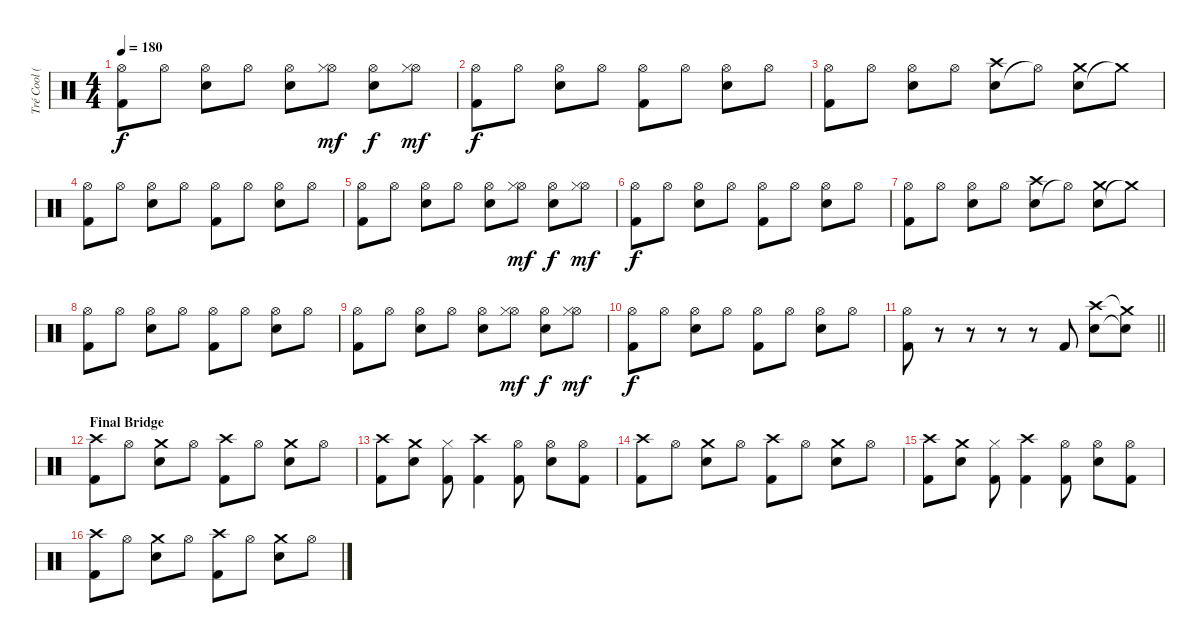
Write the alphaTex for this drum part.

\track ("Tré Cool (Drums)" "Tré Cool (") {instrument percussion}
\staff {score}
\articulation defaults
\ts (4 4)
\tempo 180
\clef neutral
\ks c
("Kick (hit) 2" "Hi-Hat (open)").8{dy f} "Hi-Hat (open)".8 ("Snare (hit) 2" "Hi-Hat (open)").8 "Hi-Hat (open)".8 ("Snare (hit) 2" "Hi-Hat (open)").8 ("Hi-Hat (open)" "Hi-Hat (closed)").8{dy mf} ("Snare (hit) 2" "Hi-Hat (open)").8{dy f} ("Hi-Hat (open)" "Hi-Hat (closed)").8{dy mf} |
("Kick (hit) 2" "Hi-Hat (open)").8{dy f} "Hi-Hat (open)".8 ("Snare (hit) 2" "Hi-Hat (open)").8 "Hi-Hat (open)".8 ("Kick (hit) 2" "Hi-Hat (open)").8 "Hi-Hat (open)".8 ("Snare (hit) 2" "Hi-Hat (open)").8 "Hi-Hat (open)".8 |
("Kick (hit) 2" "Hi-Hat (open)").8 "Hi-Hat (open)".8 ("Snare (hit) 2" "Hi-Hat (open)").8 "Hi-Hat (open)".8 ("Snare (hit) 2" "Crash high (hit)").8 "Hi-Hat (open)"{t}.8 ("Snare (hit) 2" "Crash medium (hit)").8 "Crash medium (hit)"{t}.8 |
("Kick (hit) 2" "Hi-Hat (open)").8 "Hi-Hat (open)".8 ("Snare (hit) 2" "Hi-Hat (open)").8 "Hi-Hat (open)".8 ("Kick (hit) 2" "Hi-Hat (open)").8 "Hi-Hat (open)".8 ("Snare (hit) 2" "Hi-Hat (open)").8 "Hi-Hat (open)".8 |
("Kick (hit) 2" "Hi-Hat (open)").8 "Hi-Hat (open)".8 ("Snare (hit) 2" "Hi-Hat (open)").8 "Hi-Hat (open)".8 ("Snare (hit) 2" "Hi-Hat (open)").8 ("Hi-Hat (open)" "Hi-Hat (closed)").8{dy mf} ("Snare (hit) 2" "Hi-Hat (open)").8{dy f} ("Hi-Hat (open)" "Hi-Hat (closed)").8{dy mf} |
("Kick (hit) 2" "Hi-Hat (open)").8{dy f} "Hi-Hat (open)".8 ("Snare (hit) 2" "Hi-Hat (open)").8 "Hi-Hat (open)".8 ("Kick (hit) 2" "Hi-Hat (open)").8 "Hi-Hat (open)".8 ("Snare (hit) 2" "Hi-Hat (open)").8 "Hi-Hat (open)".8 |
("Kick (hit) 2" "Hi-Hat (open)").8 "Hi-Hat (open)".8 ("Snare (hit) 2" "Hi-Hat (open)").8 "Hi-Hat (open)".8 ("Snare (hit) 2" "Crash high (hit)").8 "Hi-Hat (open)"{t}.8 ("Snare (hit) 2" "Crash medium (hit)").8 "Crash medium (hit)"{t}.8 |
("Kick (hit) 2" "Hi-Hat (open)").8 "Hi-Hat (open)".8 ("Snare (hit) 2" "Hi-Hat (open)").8 "Hi-Hat (open)".8 ("Kick (hit) 2" "Hi-Hat (open)").8 "Hi-Hat (open)".8 ("Snare (hit) 2" "Hi-Hat (open)").8 "Hi-Hat (open)".8 |
("Kick (hit) 2" "Hi-Hat (open)").8 "Hi-Hat (open)".8 ("Snare (hit) 2" "Hi-Hat (open)").8 "Hi-Hat (open)".8 ("Snare (hit) 2" "Hi-Hat (open)").8 ("Hi-Hat (open)" "Hi-Hat (closed)").8{dy mf} ("Snare (hit) 2" "Hi-Hat (open)").8{dy f} ("Hi-Hat (open)" "Hi-Hat (closed)").8{dy mf} |
("Kick (hit) 2" "Hi-Hat (open)").8{dy f} "Hi-Hat (open)".8 ("Snare (hit) 2" "Hi-Hat (open)").8 "Hi-Hat (open)".8 ("Kick (hit) 2" "Hi-Hat (open)").8 "Hi-Hat (open)".8 ("Snare (hit) 2" "Hi-Hat (open)").8 "Hi-Hat (open)".8 |
\barLineRight lightlight
("Kick (hit) 2" "Hi-Hat (open)").8 r.8 r.8 r.8 r.8 "Kick (hit) 2".8 ("Snare (hit) 2" "Crash high (hit)").8 ("Snare (hit)"{t} "Crash medium (hit)"{t}).8 |
\section ("" "Final Bridge")
("Kick (hit) 2" "Crash high (hit)").8 "Hi-Hat (open)".8 ("Snare (hit) 2" "Crash medium (hit)").8 "Hi-Hat (open)".8 ("Kick (hit) 2" "Crash high (hit)").8 "Hi-Hat (open)".8 ("Snare (hit) 2" "Crash medium (hit)").8 "Hi-Hat (open)".8 |
("Kick (hit) 2" "Crash high (hit)").8 ("Snare (hit) 2" "Crash medium (hit)").8 ("Kick (hit) 2" "Hi-Hat (closed)").8 ("Kick (hit) 2" "Crash high (hit)").4 ("Kick (hit) 2" "Hi-Hat (open)").8 ("Snare (hit) 2" "Hi-Hat (open)").8 ("Kick (hit) 2" "Hi-Hat (open)").8 |
("Kick (hit) 2" "Crash high (hit)").8 "Hi-Hat (open)".8 ("Snare (hit) 2" "Crash medium (hit)").8 "Hi-Hat (open)".8 ("Kick (hit) 2" "Crash high (hit)").8 "Hi-Hat (open)".8 ("Snare (hit) 2" "Crash medium (hit)").8 "Hi-Hat (open)".8 |
("Kick (hit) 2" "Crash high (hit)").8 ("Snare (hit) 2" "Crash medium (hit)").8 ("Kick (hit) 2" "Hi-Hat (closed)").8 ("Kick (hit) 2" "Crash high (hit)").4 ("Kick (hit) 2" "Hi-Hat (open)").8 ("Snare (hit) 2" "Hi-Hat (open)").8 ("Kick (hit) 2" "Hi-Hat (open)").8 |
("Kick (hit) 2" "Crash high (hit)").8 "Hi-Hat (open)".8 ("Snare (hit) 2" "Crash medium (hit)").8 "Hi-Hat (open)".8 ("Kick (hit) 2" "Crash high (hit)").8 "Hi-Hat (open)".8 ("Snare (hit) 2" "Crash medium (hit)").8 "Hi-Hat (open)".8
